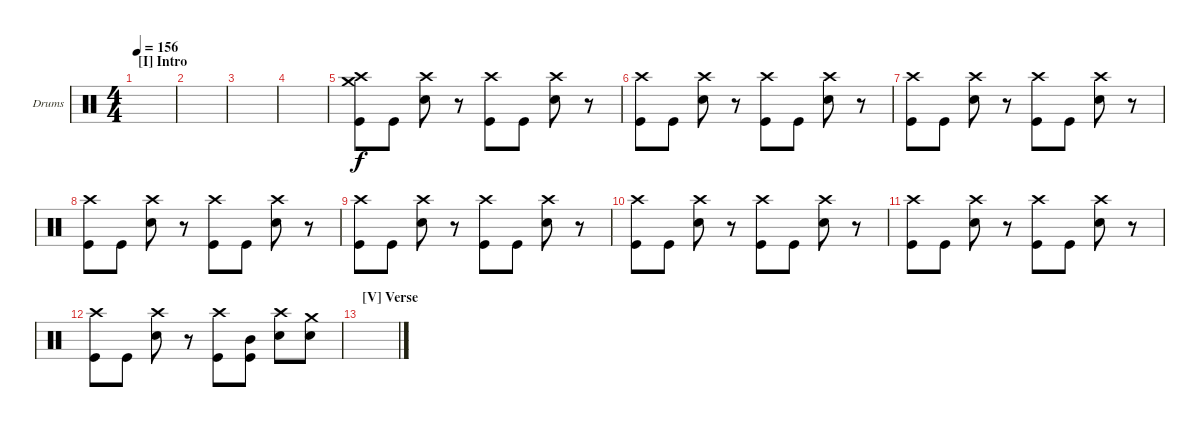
\defaultSystemsLayout 4
\bracketExtendMode groupsimilarinstruments
\firstSystemTrackNameOrientation horizontal
\otherSystemsTrackNameOrientation horizontal
\track ("Drumkit" "Drums") {instrument percussion}
\staff {score}
\articulation defaults
\ts (4 4)
\section ("I" "Intro")
\tempo 156
\clef neutral
\ks c
|
|
|
|
("Kick (hit)" "Crash medium (hit)" "Crash high (hit)").8 "Kick (hit)".8 ("Snare (hit) 2" "Crash high (hit)").8 r.8 ("Kick (hit)" "Crash high (hit)").8 "Kick (hit)".8 ("Snare (hit) 2" "Crash high (hit)").8 r.8 |
("Kick (hit)" "Crash high (hit)").8 "Kick (hit)".8 ("Snare (hit) 2" "Crash high (hit)").8 r.8 ("Kick (hit)" "Crash high (hit)").8 "Kick (hit)".8 ("Snare (hit) 2" "Crash high (hit)").8 r.8 |
("Kick (hit)" "Crash high (hit)").8 "Kick (hit)".8 ("Snare (hit) 2" "Crash high (hit)").8 r.8 ("Kick (hit)" "Crash high (hit)").8 "Kick (hit)".8 ("Snare (hit) 2" "Crash high (hit)").8 r.8 |
("Kick (hit)" "Crash high (hit)").8 "Kick (hit)".8 ("Snare (hit) 2" "Crash high (hit)").8 r.8 ("Kick (hit)" "Crash high (hit)").8 "Kick (hit)".8 ("Snare (hit) 2" "Crash high (hit)").8 r.8 |
("Kick (hit)" "Crash high (hit)").8 "Kick (hit)".8 ("Snare (hit) 2" "Crash high (hit)").8 r.8 ("Kick (hit)" "Crash high (hit)").8 "Kick (hit)".8 ("Snare (hit) 2" "Crash high (hit)").8 r.8 |
("Kick (hit)" "Crash high (hit)").8 "Kick (hit)".8 ("Snare (hit) 2" "Crash high (hit)").8 r.8 ("Kick (hit)" "Crash high (hit)").8 "Kick (hit)".8 ("Snare (hit) 2" "Crash high (hit)").8 r.8 |
("Kick (hit)" "Crash high (hit)").8 "Kick (hit)".8 ("Snare (hit) 2" "Crash high (hit)").8 r.8 ("Kick (hit)" "Crash high (hit)").8 "Kick (hit)".8 ("Snare (hit) 2" "Crash high (hit)").8 r.8 |
("Kick (hit)" "Crash high (hit)").8 "Kick (hit)".8 ("Snare (hit) 2" "Crash high (hit)").8 r.8 ("Kick (hit)" "Crash high (hit)").8 ("Kick (hit)" "Mid Tom (hit)").8 ("Snare (hit) 2" "Crash high (hit)").8 ("Snare (hit) 2" "Crash medium (hit)").8 |
\section ("V" "Verse ")
